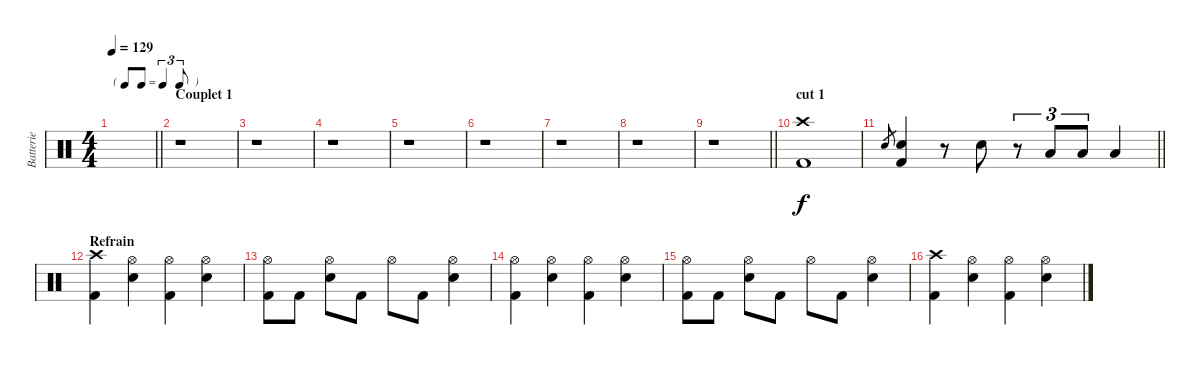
\track ("Batterie" "Batterie") {instrument percussion}
\staff {score}
\articulation defaults
\ts (4 4)
\tf triplet8th
\tempo 129
\clef neutral
\barLineRight lightlight
\ks c
|
\section ("" "Couplet 1")
r.1 |
r.1 |
r.1 |
r.1 |
r.1 |
r.1 |
r.1 |
\barLineRight lightlight
r.1 |
\section ("" "cut 1")
("Crash high (hit)" "Kick (hit) 2").1 |
\barLineRight lightlight "Snare (hit) 2"{h}.8{gr}
("Snare (hit) 2" "Kick (hit) 2").4 r.8 "Snare (hit) 2".8 r.8{tu (3 2)} "Low Tom (hit)".8{tu (3 2)} "Low Tom (hit)".8{tu (3 2)} "Low Tom (hit)".4 |
\section ("" "Refrain")
("Crash high (hit)" "Kick (hit) 2").4 ("Hi-Hat (open)" "Snare (hit) 2").4 ("Hi-Hat (open)" "Kick (hit) 2").4 ("Hi-Hat (open)" "Snare (hit) 2").4 |
("Hi-Hat (open)" "Kick (hit) 2").8 "Kick (hit) 2".8 ("Hi-Hat (open)" "Snare (hit) 2").8 "Kick (hit) 2".8 "Hi-Hat (open)".8 "Kick (hit) 2".8 ("Hi-Hat (open)" "Snare (hit) 2").4 |
("Hi-Hat (open)" "Kick (hit) 2").4 ("Hi-Hat (open)" "Snare (hit) 2").4 ("Hi-Hat (open)" "Kick (hit) 2").4 ("Hi-Hat (open)" "Snare (hit) 2").4 |
("Hi-Hat (open)" "Kick (hit) 2").8 "Kick (hit) 2".8 ("Hi-Hat (open)" "Snare (hit) 2").8 "Kick (hit) 2".8 "Hi-Hat (open)".8 "Kick (hit) 2".8 ("Hi-Hat (open)" "Snare (hit) 2").4 |
("Crash high (hit)" "Kick (hit) 2").4 ("Hi-Hat (open)" "Snare (hit) 2").4 ("Hi-Hat (open)" "Kick (hit) 2").4 ("Hi-Hat (open)" "Snare (hit) 2").4
